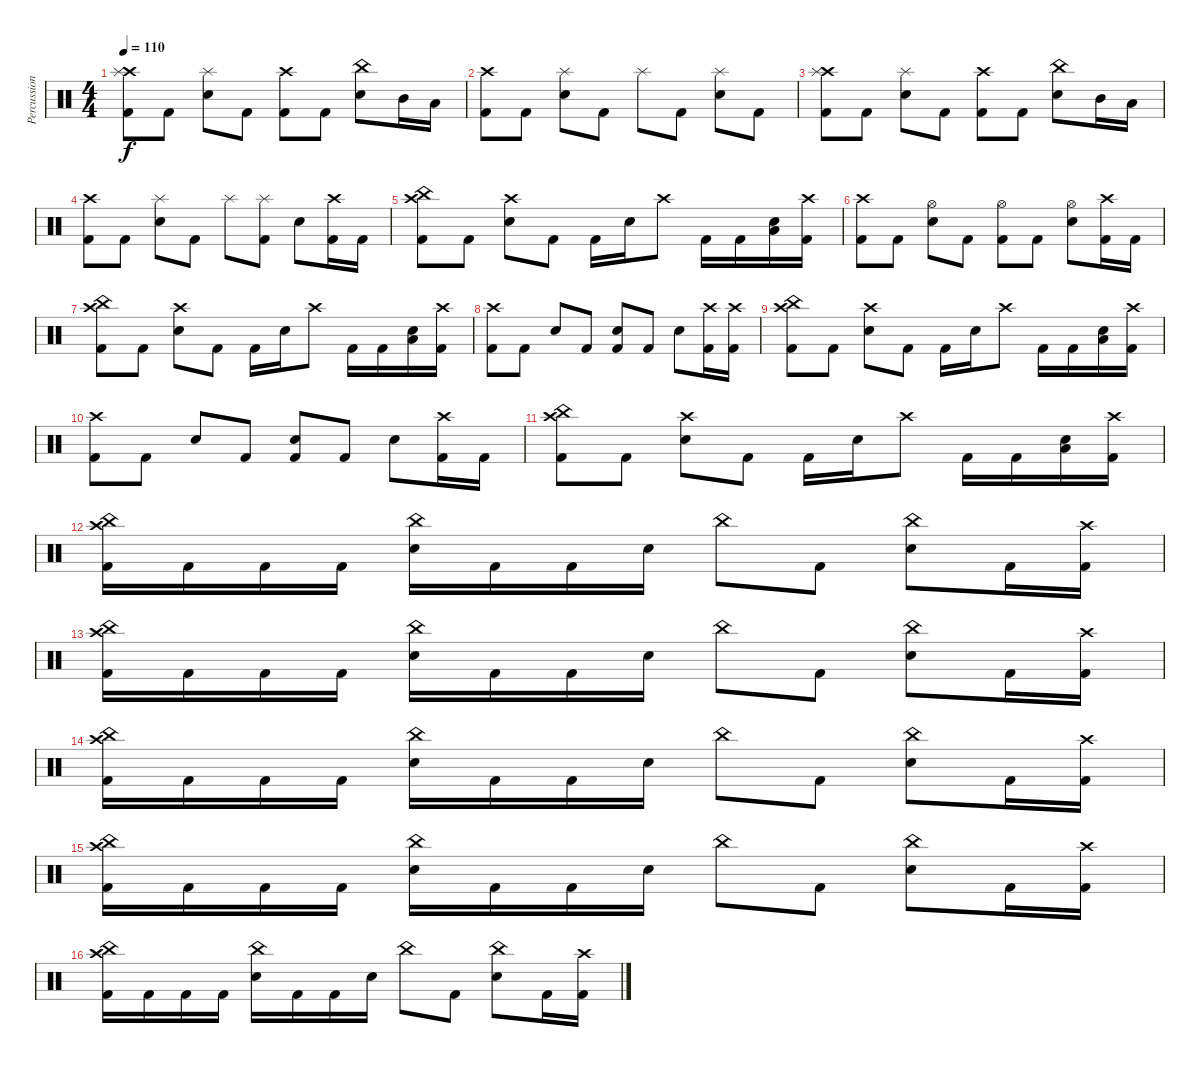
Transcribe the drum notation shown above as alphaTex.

\track ("Percussion" "Percussion") {instrument percussion}
\staff {score}
\articulation defaults
\ts (4 4)
\tempo 110
\clef neutral
\ks c
("Crash high (hit)" "Splash (hit)" "Kick (hit) 2").8{dy f} "Kick (hit) 2".8 ("Splash (hit)" "Snare (hit) 2").8 "Kick (hit) 2".8 ("Crash high (hit)" "Kick (hit) 2").8 "Kick (hit) 2".8 ("China (hit)" "Snare (hit) 2").8 "Mid Tom (hit)".16 "Low Floor Tom (hit)".16 |
("Crash high (hit)" "Kick (hit) 2").8 "Kick (hit) 2".8 ("Splash (hit)" "Snare (hit) 2").8 "Kick (hit) 2".8 "Splash (hit)".8 "Kick (hit) 2".8 ("Splash (hit)" "Snare (hit) 2").8 "Kick (hit) 2".8 |
("Crash high (hit)" "Splash (hit)" "Kick (hit) 2").8 "Kick (hit) 2".8 ("Splash (hit)" "Snare (hit) 2").8 "Kick (hit) 2".8 ("Crash high (hit)" "Kick (hit) 2").8 "Kick (hit) 2".8 ("China (hit)" "Snare (hit) 2").8 "Mid Tom (hit)".16 "Low Floor Tom (hit)".16 |
("Crash high (hit)" "Kick (hit) 2").8 "Kick (hit) 2".8 ("Splash (hit)" "Snare (hit) 2").8 "Kick (hit) 2".8 "Splash (hit)".8 ("Splash (hit)" "Kick (hit) 2").8 "Snare (hit) 2".8 ("Crash high (hit)" "Kick (hit) 2").16 "Kick (hit) 2".16 |
("Crash high (hit)" "China (hit)" "Kick (hit) 2").8 "Kick (hit) 2".8 ("Crash high (hit)" "Snare (hit) 2").8 "Kick (hit) 2".8 "Kick (hit) 2".16 "Snare (hit) 2".16 "Crash high (hit)".8 "Kick (hit) 2".16 "Kick (hit) 2".16 ("Snare (hit) 2" "Low Floor Tom (hit)").16 ("Crash high (hit)" "Kick (hit) 2").16 |
("Crash high (hit)" "Kick (hit) 2").8 "Kick (hit) 2".8 ("Snare (hit) 2" "Hi-Hat (open)").8 "Kick (hit) 2".8 ("Hi-Hat (open)" "Kick (hit) 2").8 "Kick (hit) 2".8 ("Snare (hit) 2" "Hi-Hat (open)").8 ("Crash high (hit)" "Kick (hit) 2").16 "Kick (hit) 2".16 |
("Crash high (hit)" "China (hit)" "Kick (hit) 2").8 "Kick (hit) 2".8 ("Crash high (hit)" "Snare (hit) 2").8 "Kick (hit) 2".8 "Kick (hit) 2".16 "Snare (hit) 2".16 "Crash high (hit)".8 "Kick (hit) 2".16 "Kick (hit) 2".16 ("Snare (hit) 2" "Low Floor Tom (hit)").16 ("Crash high (hit)" "Kick (hit) 2").16 |
("Crash high (hit)" "Kick (hit) 2").8 "Kick (hit) 2".8 "Snare (hit) 2".8 "Kick (hit) 2".8 ("Snare (hit) 2" "Kick (hit) 2").8 "Kick (hit) 2".8 "Snare (hit) 2".8 ("Crash high (hit)" "Kick (hit) 2").16 ("Crash high (hit)" "Kick (hit) 2").16 |
("Crash high (hit)" "China (hit)" "Kick (hit) 2").8 "Kick (hit) 2".8 ("Crash high (hit)" "Snare (hit) 2").8 "Kick (hit) 2".8 "Kick (hit) 2".16 "Snare (hit) 2".16 "Crash high (hit)".8 "Kick (hit) 2".16 "Kick (hit) 2".16 ("Snare (hit) 2" "Low Floor Tom (hit)").16 ("Crash high (hit)" "Kick (hit) 2").16 |
("Crash high (hit)" "Kick (hit) 2").8 "Kick (hit) 2".8 "Snare (hit) 2".8 "Kick (hit) 2".8 ("Snare (hit) 2" "Kick (hit) 2").8 "Kick (hit) 2".8 "Snare (hit) 2".8 ("Crash high (hit)" "Kick (hit) 2").16 "Kick (hit) 2".16 |
("Crash high (hit)" "China (hit)" "Kick (hit) 2").8 "Kick (hit) 2".8 ("Crash high (hit)" "Snare (hit) 2").8 "Kick (hit) 2".8 "Kick (hit) 2".16 "Snare (hit) 2".16 "Crash high (hit)".8 "Kick (hit) 2".16 "Kick (hit) 2".16 ("Snare (hit) 2" "Low Floor Tom (hit)").16 ("Crash high (hit)" "Kick (hit) 2").16 |
("Crash high (hit)" "China (hit)" "Kick (hit) 2").16 "Kick (hit) 2".16 "Kick (hit) 2".16 "Kick (hit) 2".16 ("China (hit)" "Snare (hit) 2").16 "Kick (hit) 2".16 "Kick (hit) 2".16 "Snare (hit) 2".16 "China (hit)".8 "Kick (hit) 2".8 ("China (hit)" "Snare (hit) 2").8 "Kick (hit) 2".16 ("Crash high (hit)" "Kick (hit) 2").16 |
("Crash high (hit)" "China (hit)" "Kick (hit) 2").16 "Kick (hit) 2".16 "Kick (hit) 2".16 "Kick (hit) 2".16 ("China (hit)" "Snare (hit) 2").16 "Kick (hit) 2".16 "Kick (hit) 2".16 "Snare (hit) 2".16 "China (hit)".8 "Kick (hit) 2".8 ("China (hit)" "Snare (hit) 2").8 "Kick (hit) 2".16 ("Crash high (hit)" "Kick (hit) 2").16 |
("Crash high (hit)" "China (hit)" "Kick (hit) 2").16 "Kick (hit) 2".16 "Kick (hit) 2".16 "Kick (hit) 2".16 ("China (hit)" "Snare (hit) 2").16 "Kick (hit) 2".16 "Kick (hit) 2".16 "Snare (hit) 2".16 "China (hit)".8 "Kick (hit) 2".8 ("China (hit)" "Snare (hit) 2").8 "Kick (hit) 2".16 ("Crash high (hit)" "Kick (hit) 2").16 |
("Crash high (hit)" "China (hit)" "Kick (hit) 2").16 "Kick (hit) 2".16 "Kick (hit) 2".16 "Kick (hit) 2".16 ("China (hit)" "Snare (hit) 2").16 "Kick (hit) 2".16 "Kick (hit) 2".16 "Snare (hit) 2".16 "China (hit)".8 "Kick (hit) 2".8 ("China (hit)" "Snare (hit) 2").8 "Kick (hit) 2".16 ("Crash high (hit)" "Kick (hit) 2").16 |
("Crash high (hit)" "China (hit)" "Kick (hit) 2").16 "Kick (hit) 2".16 "Kick (hit) 2".16 "Kick (hit) 2".16 ("China (hit)" "Snare (hit) 2").16 "Kick (hit) 2".16 "Kick (hit) 2".16 "Snare (hit) 2".16 "China (hit)".8 "Kick (hit) 2".8 ("China (hit)" "Snare (hit) 2").8 "Kick (hit) 2".16 ("Crash high (hit)" "Kick (hit) 2").16
